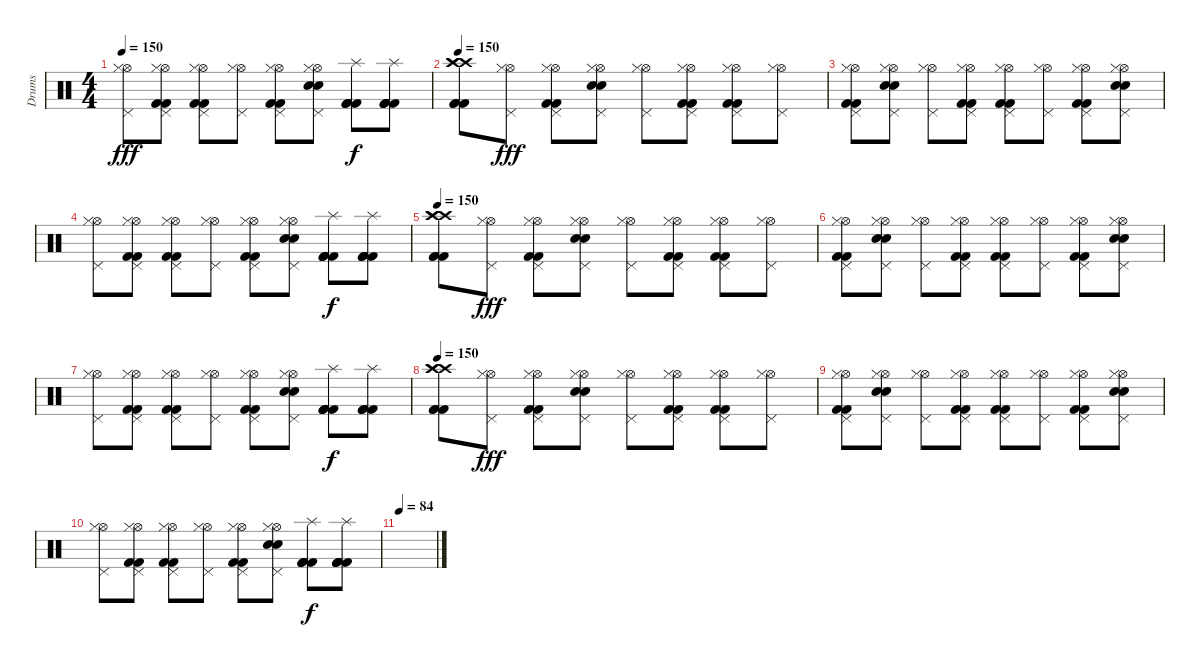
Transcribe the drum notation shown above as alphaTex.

\track ("Drums" "Drums") {instrument percussion}
\staff {score}
\articulation defaults
\ts (4 4)
\tempo 150
\clef neutral
\ks c
("Hi-Hat (open)" "Pedal Hi-Hat (hit)" "Hi-Hat (closed)").8{dy fff} ("Hi-Hat (open)" "Pedal Hi-Hat (hit)" "Hi-Hat (closed)" "Kick (hit) 2" "Kick (hit) 2").8 ("Hi-Hat (open)" "Pedal Hi-Hat (hit)" "Hi-Hat (closed)" "Kick (hit) 2" "Kick (hit) 2").8 ("Hi-Hat (open)" "Pedal Hi-Hat (hit)" "Hi-Hat (closed)").8 ("Hi-Hat (open)" "Pedal Hi-Hat (hit)" "Hi-Hat (closed)" "Kick (hit) 2" "Kick (hit) 2").8 ("Hi-Hat (open)" "Pedal Hi-Hat (hit)" "Hi-Hat (closed)" "Snare (hit) 2" "Snare (hit) 2").8 ("Splash (hit)" "Kick (hit) 2" "Kick (hit) 2" "Kick (hit) 2" "Kick (hit) 2").8{dy f} ("Splash (hit)" "Kick (hit) 2" "Kick (hit) 2" "Kick (hit) 2" "Kick (hit) 2").8 |
\tempo 150
("Crash high (hit)" "Crash high (hit)" "Crash high (hit)" "Kick (hit) 2" "Kick (hit) 2" "Kick (hit) 2").8 ("Hi-Hat (open)" "Pedal Hi-Hat (hit)" "Hi-Hat (closed)").8{dy fff} ("Hi-Hat (open)" "Pedal Hi-Hat (hit)" "Hi-Hat (closed)" "Kick (hit) 2" "Kick (hit) 2").8 ("Hi-Hat (open)" "Pedal Hi-Hat (hit)" "Hi-Hat (closed)" "Snare (hit) 2" "Snare (hit) 2").8 ("Hi-Hat (open)" "Pedal Hi-Hat (hit)" "Hi-Hat (closed)").8 ("Hi-Hat (open)" "Pedal Hi-Hat (hit)" "Hi-Hat (closed)" "Kick (hit) 2" "Kick (hit) 2").8 ("Hi-Hat (open)" "Pedal Hi-Hat (hit)" "Hi-Hat (closed)" "Kick (hit) 2" "Kick (hit) 2").8 ("Hi-Hat (open)" "Pedal Hi-Hat (hit)" "Hi-Hat (closed)").8 |
("Hi-Hat (open)" "Pedal Hi-Hat (hit)" "Hi-Hat (closed)" "Kick (hit) 2" "Kick (hit) 2").8 ("Hi-Hat (open)" "Pedal Hi-Hat (hit)" "Hi-Hat (closed)" "Snare (hit) 2" "Snare (hit) 2").8 ("Hi-Hat (open)" "Pedal Hi-Hat (hit)" "Hi-Hat (closed)").8 ("Hi-Hat (open)" "Pedal Hi-Hat (hit)" "Hi-Hat (closed)" "Kick (hit) 2" "Kick (hit) 2").8 ("Hi-Hat (open)" "Pedal Hi-Hat (hit)" "Hi-Hat (closed)" "Kick (hit) 2" "Kick (hit) 2").8 ("Hi-Hat (open)" "Pedal Hi-Hat (hit)" "Hi-Hat (closed)").8 ("Hi-Hat (open)" "Pedal Hi-Hat (hit)" "Hi-Hat (closed)" "Kick (hit) 2" "Kick (hit) 2").8 ("Hi-Hat (open)" "Pedal Hi-Hat (hit)" "Hi-Hat (closed)" "Snare (hit) 2" "Snare (hit) 2").8 |
("Hi-Hat (open)" "Pedal Hi-Hat (hit)" "Hi-Hat (closed)").8 ("Hi-Hat (open)" "Pedal Hi-Hat (hit)" "Hi-Hat (closed)" "Kick (hit) 2" "Kick (hit) 2").8 ("Hi-Hat (open)" "Pedal Hi-Hat (hit)" "Hi-Hat (closed)" "Kick (hit) 2" "Kick (hit) 2").8 ("Hi-Hat (open)" "Pedal Hi-Hat (hit)" "Hi-Hat (closed)").8 ("Hi-Hat (open)" "Pedal Hi-Hat (hit)" "Hi-Hat (closed)" "Kick (hit) 2" "Kick (hit) 2").8 ("Hi-Hat (open)" "Pedal Hi-Hat (hit)" "Hi-Hat (closed)" "Snare (hit) 2" "Snare (hit) 2").8 ("Splash (hit)" "Kick (hit) 2" "Kick (hit) 2" "Kick (hit) 2" "Kick (hit) 2").8{dy f} ("Splash (hit)" "Kick (hit) 2" "Kick (hit) 2" "Kick (hit) 2" "Kick (hit) 2").8 |
\tempo 150
("Crash high (hit)" "Crash high (hit)" "Crash high (hit)" "Kick (hit) 2" "Kick (hit) 2" "Kick (hit) 2").8 ("Hi-Hat (open)" "Pedal Hi-Hat (hit)" "Hi-Hat (closed)").8{dy fff} ("Hi-Hat (open)" "Pedal Hi-Hat (hit)" "Hi-Hat (closed)" "Kick (hit) 2" "Kick (hit) 2").8 ("Hi-Hat (open)" "Pedal Hi-Hat (hit)" "Hi-Hat (closed)" "Snare (hit) 2" "Snare (hit) 2").8 ("Hi-Hat (open)" "Pedal Hi-Hat (hit)" "Hi-Hat (closed)").8 ("Hi-Hat (open)" "Pedal Hi-Hat (hit)" "Hi-Hat (closed)" "Kick (hit) 2" "Kick (hit) 2").8 ("Hi-Hat (open)" "Pedal Hi-Hat (hit)" "Hi-Hat (closed)" "Kick (hit) 2" "Kick (hit) 2").8 ("Hi-Hat (open)" "Pedal Hi-Hat (hit)" "Hi-Hat (closed)").8 |
("Hi-Hat (open)" "Pedal Hi-Hat (hit)" "Hi-Hat (closed)" "Kick (hit) 2" "Kick (hit) 2").8 ("Hi-Hat (open)" "Pedal Hi-Hat (hit)" "Hi-Hat (closed)" "Snare (hit) 2" "Snare (hit) 2").8 ("Hi-Hat (open)" "Pedal Hi-Hat (hit)" "Hi-Hat (closed)").8 ("Hi-Hat (open)" "Pedal Hi-Hat (hit)" "Hi-Hat (closed)" "Kick (hit) 2" "Kick (hit) 2").8 ("Hi-Hat (open)" "Pedal Hi-Hat (hit)" "Hi-Hat (closed)" "Kick (hit) 2" "Kick (hit) 2").8 ("Hi-Hat (open)" "Pedal Hi-Hat (hit)" "Hi-Hat (closed)").8 ("Hi-Hat (open)" "Pedal Hi-Hat (hit)" "Hi-Hat (closed)" "Kick (hit) 2" "Kick (hit) 2").8 ("Hi-Hat (open)" "Pedal Hi-Hat (hit)" "Hi-Hat (closed)" "Snare (hit) 2" "Snare (hit) 2").8 |
("Hi-Hat (open)" "Pedal Hi-Hat (hit)" "Hi-Hat (closed)").8 ("Hi-Hat (open)" "Pedal Hi-Hat (hit)" "Hi-Hat (closed)" "Kick (hit) 2" "Kick (hit) 2").8 ("Hi-Hat (open)" "Pedal Hi-Hat (hit)" "Hi-Hat (closed)" "Kick (hit) 2" "Kick (hit) 2").8 ("Hi-Hat (open)" "Pedal Hi-Hat (hit)" "Hi-Hat (closed)").8 ("Hi-Hat (open)" "Pedal Hi-Hat (hit)" "Hi-Hat (closed)" "Kick (hit) 2" "Kick (hit) 2").8 ("Hi-Hat (open)" "Pedal Hi-Hat (hit)" "Hi-Hat (closed)" "Snare (hit) 2" "Snare (hit) 2").8 ("Splash (hit)" "Kick (hit) 2" "Kick (hit) 2" "Kick (hit) 2" "Kick (hit) 2").8{dy f} ("Splash (hit)" "Kick (hit) 2" "Kick (hit) 2" "Kick (hit) 2" "Kick (hit) 2").8 |
\tempo 150
("Crash high (hit)" "Crash high (hit)" "Crash high (hit)" "Kick (hit) 2" "Kick (hit) 2" "Kick (hit) 2").8 ("Hi-Hat (open)" "Pedal Hi-Hat (hit)" "Hi-Hat (closed)").8{dy fff} ("Hi-Hat (open)" "Pedal Hi-Hat (hit)" "Hi-Hat (closed)" "Kick (hit) 2" "Kick (hit) 2").8 ("Hi-Hat (open)" "Pedal Hi-Hat (hit)" "Hi-Hat (closed)" "Snare (hit) 2" "Snare (hit) 2").8 ("Hi-Hat (open)" "Pedal Hi-Hat (hit)" "Hi-Hat (closed)").8 ("Hi-Hat (open)" "Pedal Hi-Hat (hit)" "Hi-Hat (closed)" "Kick (hit) 2" "Kick (hit) 2").8 ("Hi-Hat (open)" "Pedal Hi-Hat (hit)" "Hi-Hat (closed)" "Kick (hit) 2" "Kick (hit) 2").8 ("Hi-Hat (open)" "Pedal Hi-Hat (hit)" "Hi-Hat (closed)").8 |
("Hi-Hat (open)" "Pedal Hi-Hat (hit)" "Hi-Hat (closed)" "Kick (hit) 2" "Kick (hit) 2").8 ("Hi-Hat (open)" "Pedal Hi-Hat (hit)" "Hi-Hat (closed)" "Snare (hit) 2" "Snare (hit) 2").8 ("Hi-Hat (open)" "Pedal Hi-Hat (hit)" "Hi-Hat (closed)").8 ("Hi-Hat (open)" "Pedal Hi-Hat (hit)" "Hi-Hat (closed)" "Kick (hit) 2" "Kick (hit) 2").8 ("Hi-Hat (open)" "Pedal Hi-Hat (hit)" "Hi-Hat (closed)" "Kick (hit) 2" "Kick (hit) 2").8 ("Hi-Hat (open)" "Pedal Hi-Hat (hit)" "Hi-Hat (closed)").8 ("Hi-Hat (open)" "Pedal Hi-Hat (hit)" "Hi-Hat (closed)" "Kick (hit) 2" "Kick (hit) 2").8 ("Hi-Hat (open)" "Pedal Hi-Hat (hit)" "Hi-Hat (closed)" "Snare (hit) 2" "Snare (hit) 2").8 |
("Hi-Hat (open)" "Pedal Hi-Hat (hit)" "Hi-Hat (closed)").8 ("Hi-Hat (open)" "Pedal Hi-Hat (hit)" "Hi-Hat (closed)" "Kick (hit) 2" "Kick (hit) 2").8 ("Hi-Hat (open)" "Pedal Hi-Hat (hit)" "Hi-Hat (closed)" "Kick (hit) 2" "Kick (hit) 2").8 ("Hi-Hat (open)" "Pedal Hi-Hat (hit)" "Hi-Hat (closed)").8 ("Hi-Hat (open)" "Pedal Hi-Hat (hit)" "Hi-Hat (closed)" "Kick (hit) 2" "Kick (hit) 2").8 ("Hi-Hat (open)" "Pedal Hi-Hat (hit)" "Hi-Hat (closed)" "Snare (hit) 2" "Snare (hit) 2").8 ("Splash (hit)" "Kick (hit) 2" "Kick (hit) 2" "Kick (hit) 2" "Kick (hit) 2").8{dy f} ("Splash (hit)" "Kick (hit) 2" "Kick (hit) 2" "Kick (hit) 2" "Kick (hit) 2").8 |
\tempo 84
